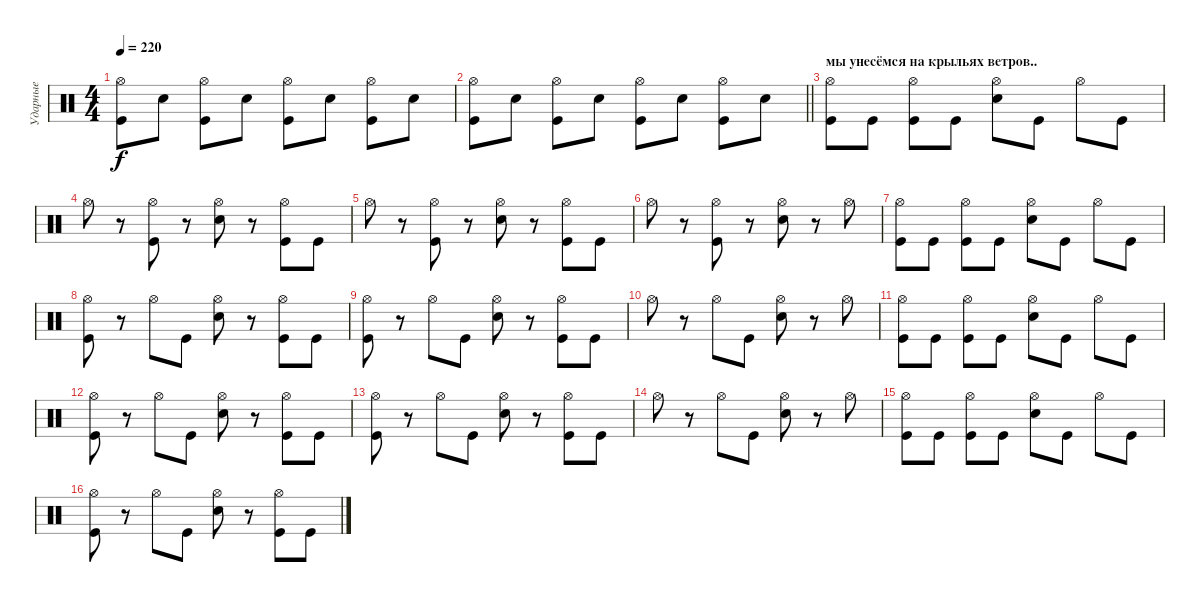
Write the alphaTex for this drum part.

\track ("Ударные" "Ударные") {instrument percussion}
\staff {score}
\articulation defaults
\ts (4 4)
\tempo 220
\clef neutral
\ks c
("Hi-Hat (open)" "Kick (hit)").8{dy f} "Electric Snare (hit)".8 ("Hi-Hat (open)" "Kick (hit)").8 "Electric Snare (hit)".8 ("Hi-Hat (open)" "Kick (hit)").8 "Electric Snare (hit)".8 ("Hi-Hat (open)" "Kick (hit)").8 "Electric Snare (hit)".8 |
\barLineRight lightlight
("Hi-Hat (open)" "Kick (hit)").8 "Electric Snare (hit)".8 ("Hi-Hat (open)" "Kick (hit)").8 "Electric Snare (hit)".8 ("Hi-Hat (open)" "Kick (hit)").8 "Electric Snare (hit)".8 ("Hi-Hat (open)" "Kick (hit)").8 "Electric Snare (hit)".8 |
\section ("" "мы унесёмся на крыльях ветров..")
("Hi-Hat (open)" "Kick (hit)").8 "Kick (hit)".8 ("Hi-Hat (open)" "Kick (hit)").8 "Kick (hit)".8 ("Hi-Hat (open)" "Electric Snare (hit)").8 "Kick (hit)".8 "Hi-Hat (open)".8 "Kick (hit)".8 |
"Hi-Hat (open)".8 r.8 ("Hi-Hat (open)" "Kick (hit)").8 r.8 ("Hi-Hat (open)" "Electric Snare (hit)").8 r.8 ("Hi-Hat (open)" "Kick (hit)").8 "Kick (hit)".8 |
"Hi-Hat (open)".8 r.8 ("Hi-Hat (open)" "Kick (hit)").8 r.8 ("Hi-Hat (open)" "Electric Snare (hit)").8 r.8 ("Hi-Hat (open)" "Kick (hit)").8 "Kick (hit)".8 |
"Hi-Hat (open)".8 r.8 ("Hi-Hat (open)" "Kick (hit)").8 r.8 ("Hi-Hat (open)" "Electric Snare (hit)").8 r.8 "Hi-Hat (open)".8 |
("Hi-Hat (open)" "Kick (hit)").8 "Kick (hit)".8 ("Hi-Hat (open)" "Kick (hit)").8 "Kick (hit)".8 ("Hi-Hat (open)" "Electric Snare (hit)").8 "Kick (hit)".8 "Hi-Hat (open)".8 "Kick (hit)".8 |
("Hi-Hat (open)" "Kick (hit)").8 r.8 "Hi-Hat (open)".8 "Kick (hit)".8 ("Hi-Hat (open)" "Electric Snare (hit)").8 r.8 ("Hi-Hat (open)" "Kick (hit)").8 "Kick (hit)".8 |
("Hi-Hat (open)" "Kick (hit)").8 r.8 "Hi-Hat (open)".8 "Kick (hit)".8 ("Hi-Hat (open)" "Electric Snare (hit)").8 r.8 ("Hi-Hat (open)" "Kick (hit)").8 "Kick (hit)".8 |
"Hi-Hat (open)".8 r.8 "Hi-Hat (open)".8 "Kick (hit)".8 ("Hi-Hat (open)" "Electric Snare (hit)").8 r.8 "Hi-Hat (open)".8 |
("Hi-Hat (open)" "Kick (hit)").8 "Kick (hit)".8 ("Hi-Hat (open)" "Kick (hit)").8 "Kick (hit)".8 ("Hi-Hat (open)" "Electric Snare (hit)").8 "Kick (hit)".8 "Hi-Hat (open)".8 "Kick (hit)".8 |
("Hi-Hat (open)" "Kick (hit)").8 r.8 "Hi-Hat (open)".8 "Kick (hit)".8 ("Hi-Hat (open)" "Electric Snare (hit)").8 r.8 ("Hi-Hat (open)" "Kick (hit)").8 "Kick (hit)".8 |
("Hi-Hat (open)" "Kick (hit)").8 r.8 "Hi-Hat (open)".8 "Kick (hit)".8 ("Hi-Hat (open)" "Electric Snare (hit)").8 r.8 ("Hi-Hat (open)" "Kick (hit)").8 "Kick (hit)".8 |
"Hi-Hat (open)".8 r.8 "Hi-Hat (open)".8 "Kick (hit)".8 ("Hi-Hat (open)" "Electric Snare (hit)").8 r.8 "Hi-Hat (open)".8 |
("Hi-Hat (open)" "Kick (hit)").8 "Kick (hit)".8 ("Hi-Hat (open)" "Kick (hit)").8 "Kick (hit)".8 ("Hi-Hat (open)" "Electric Snare (hit)").8 "Kick (hit)".8 "Hi-Hat (open)".8 "Kick (hit)".8 |
("Hi-Hat (open)" "Kick (hit)").8 r.8 "Hi-Hat (open)".8 "Kick (hit)".8 ("Hi-Hat (open)" "Electric Snare (hit)").8 r.8 ("Hi-Hat (open)" "Kick (hit)").8 "Kick (hit)".8
